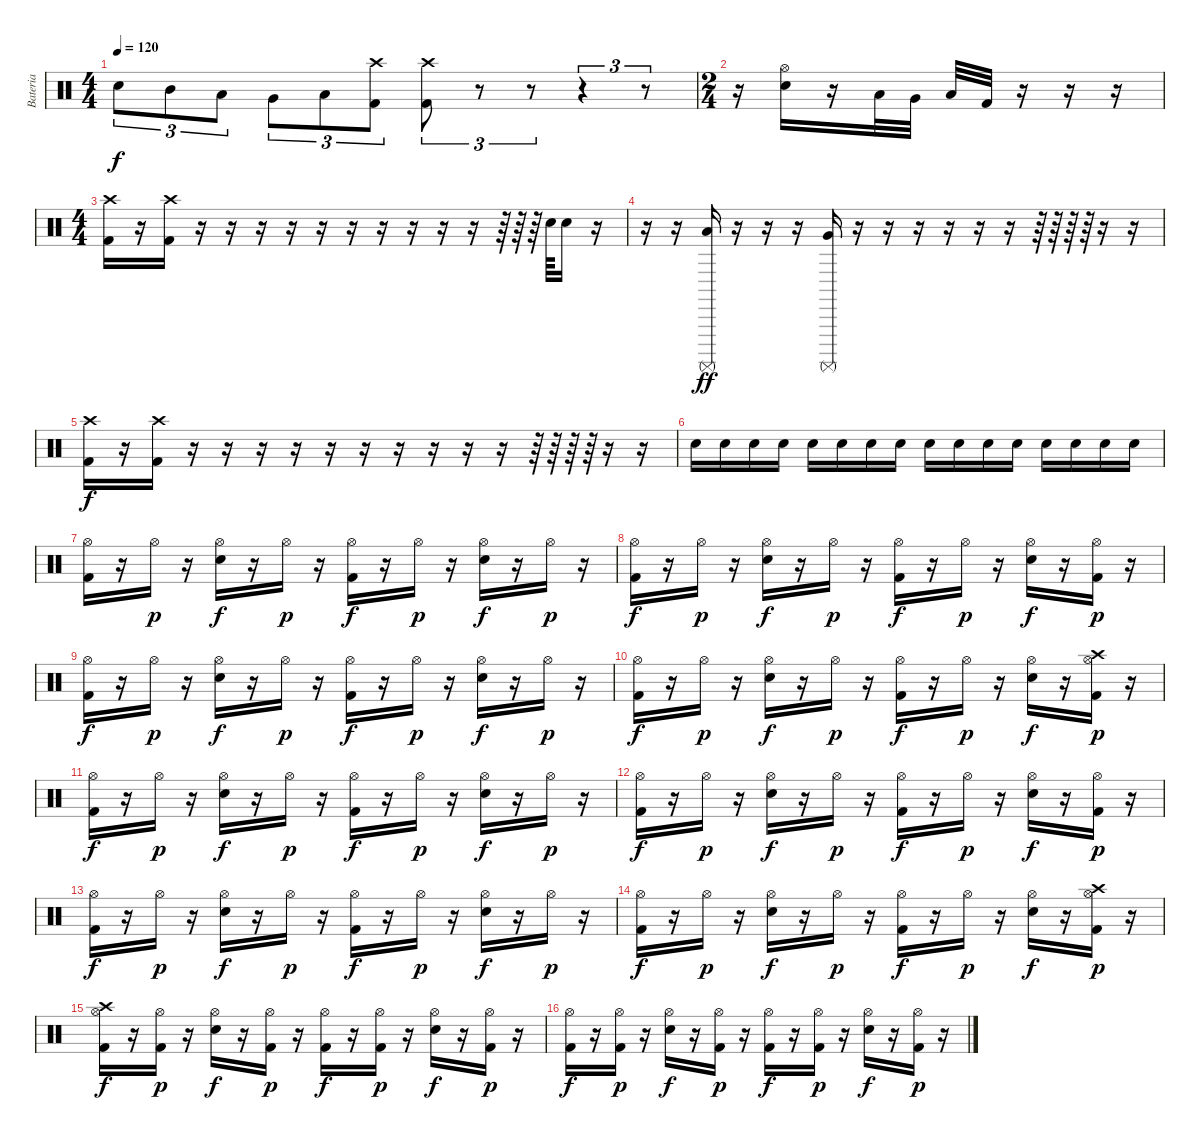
\track ("Bateria" "Bateria") {instrument percussion}
\staff {score}
\articulation defaults
\ts (4 4)
\tempo 120
\clef neutral
\ks c "Electric Snare (hit)".8{tu (3 2) dy f} "Mid Tom (hit)".8{tu (3 2)} "Low Tom (hit)".8{tu (3 2)} "Very Low Tom (hit)".8{tu (3 2)} "Low Floor Tom (hit)".8{tu (3 2)}
("Kick (hit) 2" "Crash high (hit)").8{tu (3 2)} ("Kick (hit) 2" "Crash high (hit)").8{tu (3 2)} r.8{tu (3 2)} r.8{tu (3 2)} r.4{tu (3 2)} r.8{tu (3 2)} |
\ts (2 4)
r.16 ("Electric Snare (hit)" "Hi-Hat (open)").16 r.16 "Low Tom (hit)".32 "Very Low Tom (hit)".32 "Low Floor Tom (hit)".32 "Kick (hit) 2".32 r.16 r.16 r.16 |
\ts (4 4)
("Kick (hit) 2" "Crash high (hit)").16 r.16 ("Kick (hit) 2" "Crash high (hit)").16 r.16 r.16 r.16 r.16 r.16 r.16 r.16 r.16 r.16 r.16 r.64 r.64 r.64 "Electric Snare (hit)".64 "Electric Snare (hit)".16 r.16 |
r.16 r.16 ("Surdo (mute)" "Low Tom (hit)").16{dy ff} r.16 r.16 r.16 ("Surdo (mute)" "Very Low Tom (hit)").16 r.16 r.16 r.16 r.16 r.16 r.16 r.64 r.64 r.64 r.64 r.16 r.16 |
("Kick (hit) 2" "Crash high (hit)").16{dy f} r.16 ("Kick (hit) 2" "Crash high (hit)").16 r.16 r.16 r.16 r.16 r.16 r.16 r.16 r.16 r.16 r.16 r.64 r.64 r.64 r.64 r.16 r.16 |
"Electric Snare (hit)".16 "Electric Snare (hit)".16 "Electric Snare (hit)".16 "Electric Snare (hit)".16 "Electric Snare (hit)".16 "Electric Snare (hit)".16 "Electric Snare (hit)".16 "Electric Snare (hit)".16 "Electric Snare (hit)".16 "Electric Snare (hit)".16 "Electric Snare (hit)".16 "Electric Snare (hit)".16 "Electric Snare (hit)".16 "Electric Snare (hit)".16 "Electric Snare (hit)".16 "Electric Snare (hit)".16 |
("Kick (hit) 2" "Hi-Hat (open)").16 r.16 "Hi-Hat (open)".16{dy p} r.16 ("Electric Snare (hit)" "Hi-Hat (open)").16{dy f} r.16 "Hi-Hat (open)".16{dy p} r.16 ("Kick (hit) 2" "Hi-Hat (open)").16{dy f} r.16 "Hi-Hat (open)".16{dy p} r.16 ("Electric Snare (hit)" "Hi-Hat (open)").16{dy f} r.16 "Hi-Hat (open)".16{dy p} r.16 |
("Kick (hit) 2" "Hi-Hat (open)").16{dy f} r.16 "Hi-Hat (open)".16{dy p} r.16 ("Electric Snare (hit)" "Hi-Hat (open)").16{dy f} r.16 "Hi-Hat (open)".16{dy p} r.16 ("Kick (hit) 2" "Hi-Hat (open)").16{dy f} r.16 "Hi-Hat (open)".16{dy p} r.16 ("Electric Snare (hit)" "Hi-Hat (open)").16{dy f} r.16 ("Kick (hit) 2" "Hi-Hat (open)").16{dy p} r.16 |
("Kick (hit) 2" "Hi-Hat (open)").16{dy f} r.16 "Hi-Hat (open)".16{dy p} r.16 ("Electric Snare (hit)" "Hi-Hat (open)").16{dy f} r.16 "Hi-Hat (open)".16{dy p} r.16 ("Kick (hit) 2" "Hi-Hat (open)").16{dy f} r.16 "Hi-Hat (open)".16{dy p} r.16 ("Electric Snare (hit)" "Hi-Hat (open)").16{dy f} r.16 "Hi-Hat (open)".16{dy p} r.16 |
("Kick (hit) 2" "Hi-Hat (open)").16{dy f} r.16 "Hi-Hat (open)".16{dy p} r.16 ("Electric Snare (hit)" "Hi-Hat (open)").16{dy f} r.16 "Hi-Hat (open)".16{dy p} r.16 ("Kick (hit) 2" "Hi-Hat (open)").16{dy f} r.16 "Hi-Hat (open)".16{dy p} r.16 ("Electric Snare (hit)" "Hi-Hat (open)").16{dy f} r.16 ("Kick (hit) 2" "Crash high (hit)" "Hi-Hat (open)").16{dy p} r.16 |
("Kick (hit) 2" "Hi-Hat (open)").16{dy f} r.16 "Hi-Hat (open)".16{dy p} r.16 ("Electric Snare (hit)" "Hi-Hat (open)").16{dy f} r.16 "Hi-Hat (open)".16{dy p} r.16 ("Kick (hit) 2" "Hi-Hat (open)").16{dy f} r.16 "Hi-Hat (open)".16{dy p} r.16 ("Electric Snare (hit)" "Hi-Hat (open)").16{dy f} r.16 "Hi-Hat (open)".16{dy p} r.16 |
("Kick (hit) 2" "Hi-Hat (open)").16{dy f} r.16 "Hi-Hat (open)".16{dy p} r.16 ("Electric Snare (hit)" "Hi-Hat (open)").16{dy f} r.16 "Hi-Hat (open)".16{dy p} r.16 ("Kick (hit) 2" "Hi-Hat (open)").16{dy f} r.16 "Hi-Hat (open)".16{dy p} r.16 ("Electric Snare (hit)" "Hi-Hat (open)").16{dy f} r.16 ("Kick (hit) 2" "Hi-Hat (open)").16{dy p} r.16 |
("Kick (hit) 2" "Hi-Hat (open)").16{dy f} r.16 "Hi-Hat (open)".16{dy p} r.16 ("Electric Snare (hit)" "Hi-Hat (open)").16{dy f} r.16 "Hi-Hat (open)".16{dy p} r.16 ("Kick (hit) 2" "Hi-Hat (open)").16{dy f} r.16 "Hi-Hat (open)".16{dy p} r.16 ("Electric Snare (hit)" "Hi-Hat (open)").16{dy f} r.16 "Hi-Hat (open)".16{dy p} r.16 |
("Kick (hit) 2" "Hi-Hat (open)").16{dy f} r.16 "Hi-Hat (open)".16{dy p} r.16 ("Electric Snare (hit)" "Hi-Hat (open)").16{dy f} r.16 "Hi-Hat (open)".16{dy p} r.16 ("Kick (hit) 2" "Hi-Hat (open)").16{dy f} r.16 "Hi-Hat (open)".16{dy p} r.16 ("Electric Snare (hit)" "Hi-Hat (open)").16{dy f} r.16 ("Kick (hit) 2" "Crash high (hit)" "Hi-Hat (open)").16{dy p} r.16 |
("Kick (hit) 2" "Crash high (hit)" "Hi-Hat (open)").16{dy f} r.16 ("Kick (hit) 2" "Hi-Hat (open)").16{dy p} r.16 ("Electric Snare (hit)" "Hi-Hat (open)").16{dy f} r.16 ("Kick (hit) 2" "Hi-Hat (open)").16{dy p} r.16 ("Kick (hit) 2" "Hi-Hat (open)").16{dy f} r.16 ("Kick (hit) 2" "Hi-Hat (open)").16{dy p} r.16 ("Electric Snare (hit)" "Hi-Hat (open)").16{dy f} r.16 ("Kick (hit) 2" "Hi-Hat (open)").16{dy p} r.16 |
("Kick (hit) 2" "Hi-Hat (open)").16{dy f} r.16 ("Kick (hit) 2" "Hi-Hat (open)").16{dy p} r.16 ("Electric Snare (hit)" "Hi-Hat (open)").16{dy f} r.16 ("Kick (hit) 2" "Hi-Hat (open)").16{dy p} r.16 ("Kick (hit) 2" "Hi-Hat (open)").16{dy f} r.16 ("Kick (hit) 2" "Hi-Hat (open)").16{dy p} r.16 ("Electric Snare (hit)" "Hi-Hat (open)").16{dy f} r.16 ("Kick (hit) 2" "Hi-Hat (open)").16{dy p} r.16
